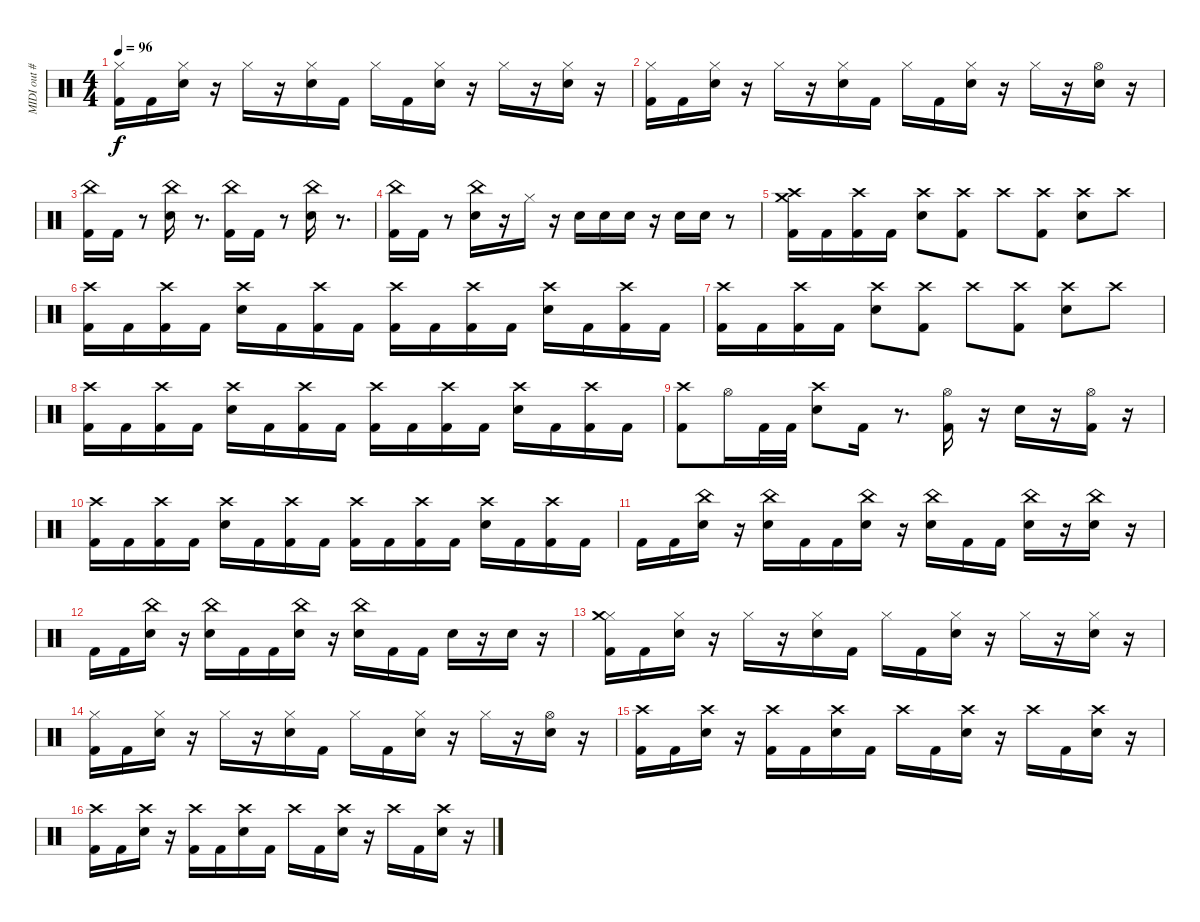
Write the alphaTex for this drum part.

\track ("MIDI out #3" "MIDI out #") {instrument percussion}
\staff {score}
\articulation defaults
\ts (4 4)
\tempo 96
\clef neutral
\ks c
("Hi-Hat (closed)" "Kick (hit) 2").16{dy f} "Kick (hit) 2".16 ("Snare (hit) 2" "Hi-Hat (closed)").16 r.16 "Hi-Hat (closed)".16 r.16 ("Snare (hit) 2" "Hi-Hat (closed)").16 "Kick (hit) 2".16 "Hi-Hat (closed)".16 "Kick (hit) 2".16 ("Snare (hit) 2" "Hi-Hat (closed)").16 r.16 "Hi-Hat (closed)".16 r.16 ("Snare (hit) 2" "Hi-Hat (closed)").16 r.16 |
("Hi-Hat (closed)" "Kick (hit) 2").16 "Kick (hit) 2".16 ("Hi-Hat (closed)" "Snare (hit) 2").16 r.16 "Hi-Hat (closed)".16 r.16 ("Hi-Hat (closed)" "Snare (hit) 2").16 "Kick (hit) 2".16 "Hi-Hat (closed)".16 "Kick (hit) 2".16 ("Hi-Hat (closed)" "Snare (hit) 2").16 r.16 "Hi-Hat (closed)".16 r.16 ("Hi-Hat (open)" "Snare (hit) 2").16 r.16 |
("China (hit)" "Kick (hit) 2").16 "Kick (hit) 2".16 r.8 ("China (hit)" "Snare (hit) 2").16 r.8{d} ("China (hit)" "Kick (hit) 2").16 "Kick (hit) 2".16 r.8 ("China (hit)" "Snare (hit) 2").16 r.8{d} |
("China (hit)" "Kick (hit) 2").16 "Kick (hit) 2".16 r.8 ("China (hit)" "Snare (hit) 2").16 r.16 "Hi-Hat (closed)".16 r.16 "Snare (hit) 2".16 "Snare (hit) 2".16 "Snare (hit) 2".16 r.16 "Snare (hit) 2".16 "Snare (hit) 2".16 r.8 |
("Crash high (hit)" "Kick (hit) 2" "Crash medium (hit)").16 "Kick (hit) 2".16 ("Crash high (hit)" "Kick (hit) 2").16 "Kick (hit) 2".16 ("Crash high (hit)" "Snare (hit) 2").8 ("Crash high (hit)" "Kick (hit) 2").8 "Crash high (hit)".8 ("Crash high (hit)" "Kick (hit) 2").8 ("Crash high (hit)" "Snare (hit) 2").8 "Crash high (hit)".8 |
("Crash high (hit)" "Kick (hit) 2").16 "Kick (hit) 2".16 ("Crash high (hit)" "Kick (hit) 2").16 "Kick (hit) 2".16 ("Crash high (hit)" "Snare (hit) 2").16 "Kick (hit) 2".16 ("Crash high (hit)" "Kick (hit) 2").16 "Kick (hit) 2".16 ("Crash high (hit)" "Kick (hit) 2").16 "Kick (hit) 2".16 ("Crash high (hit)" "Kick (hit) 2").16 "Kick (hit) 2".16 ("Crash high (hit)" "Snare (hit) 2").16 "Kick (hit) 2".16 ("Crash high (hit)" "Kick (hit) 2").16 "Kick (hit) 2".16 |
("Crash high (hit)" "Kick (hit) 2").16 "Kick (hit) 2".16 ("Crash high (hit)" "Kick (hit) 2").16 "Kick (hit) 2".16 ("Crash high (hit)" "Snare (hit) 2").8 ("Crash high (hit)" "Kick (hit) 2").8 "Crash high (hit)".8 ("Crash high (hit)" "Kick (hit) 2").8 ("Crash high (hit)" "Snare (hit) 2").8 "Crash high (hit)".8 |
("Kick (hit) 2" "Crash high (hit)").16 "Kick (hit) 2".16 ("Crash high (hit)" "Kick (hit) 2").16 "Kick (hit) 2".16 ("Snare (hit) 2" "Crash high (hit)").16 "Kick (hit) 2".16 ("Crash high (hit)" "Kick (hit) 2").16 "Kick (hit) 2".16 ("Kick (hit) 2" "Crash high (hit)").16 "Kick (hit) 2".16 ("Crash high (hit)" "Kick (hit) 2").16 "Kick (hit) 2".16 ("Snare (hit) 2" "Crash high (hit)").16 "Kick (hit) 2".16 ("Crash high (hit)" "Kick (hit) 2").16 "Kick (hit) 2".16 |
("Crash high (hit)" "Kick (hit) 2").8 "Hi-Hat (open)".16 "Kick (hit) 2".32 "Kick (hit) 2".32 ("Crash high (hit)" "Snare (hit) 2").8 "Kick (hit) 2".16 r.8{d} ("Hi-Hat (open)" "Kick (hit) 2").16 r.16 "Snare (hit) 2".16 r.16 ("Hi-Hat (open)" "Kick (hit) 2").16 r.16 |
("Crash high (hit)" "Kick (hit) 2").16 "Kick (hit) 2".16 ("Crash high (hit)" "Kick (hit) 2").16 "Kick (hit) 2".16 ("Crash high (hit)" "Snare (hit) 2").16 "Kick (hit) 2".16 ("Crash high (hit)" "Kick (hit) 2").16 "Kick (hit) 2".16 ("Crash high (hit)" "Kick (hit) 2").16 "Kick (hit) 2".16 ("Crash high (hit)" "Kick (hit) 2").16 "Kick (hit) 2".16 ("Crash high (hit)" "Snare (hit) 2").16 "Kick (hit) 2".16 ("Crash high (hit)" "Kick (hit) 2").16 "Kick (hit) 2".16 |
"Kick (hit) 2".16 "Kick (hit) 2".16 ("Snare (hit) 2" "China (hit)").16 r.16 ("Snare (hit) 2" "China (hit)").16 "Kick (hit) 2".16 "Kick (hit) 2".16 ("Snare (hit) 2" "China (hit)").16 r.16 ("Snare (hit) 2" "China (hit)").16 "Kick (hit) 2".16 "Kick (hit) 2".16 ("Snare (hit) 2" "China (hit)").16 r.16 ("Snare (hit) 2" "China (hit)").16 r.16 |
"Kick (hit) 2".16 "Kick (hit) 2".16 ("Snare (hit) 2" "China (hit)").16 r.16 ("Snare (hit) 2" "China (hit)").16 "Kick (hit) 2".16 "Kick (hit) 2".16 ("Snare (hit) 2" "China (hit)").16 r.16 ("Snare (hit) 2" "China (hit)").16 "Kick (hit) 2".16 "Kick (hit) 2".16 "Snare (hit) 2".16 r.16 "Snare (hit) 2".16 r.16 |
("Hi-Hat (closed)" "Kick (hit) 2" "Crash medium (hit)").16 "Kick (hit) 2".16 ("Snare (hit) 2" "Hi-Hat (closed)").16 r.16 "Hi-Hat (closed)".16 r.16 ("Snare (hit) 2" "Hi-Hat (closed)").16 "Kick (hit) 2".16 "Hi-Hat (closed)".16 "Kick (hit) 2".16 ("Snare (hit) 2" "Hi-Hat (closed)").16 r.16 "Hi-Hat (closed)".16 r.16 ("Snare (hit) 2" "Hi-Hat (closed)").16 r.16 |
("Hi-Hat (closed)" "Kick (hit) 2").16 "Kick (hit) 2".16 ("Hi-Hat (closed)" "Snare (hit) 2").16 r.16 "Hi-Hat (closed)".16 r.16 ("Hi-Hat (closed)" "Snare (hit) 2").16 "Kick (hit) 2".16 "Hi-Hat (closed)".16 "Kick (hit) 2".16 ("Hi-Hat (closed)" "Snare (hit) 2").16 r.16 "Hi-Hat (closed)".16 r.16 ("Hi-Hat (open)" "Snare (hit) 2").16 r.16 |
("Crash high (hit)" "Kick (hit) 2").16 "Kick (hit) 2".16 ("Crash high (hit)" "Snare (hit) 2").16 r.16 ("Crash high (hit)" "Kick (hit) 2").16 "Kick (hit) 2".16 ("Crash high (hit)" "Snare (hit) 2").16 "Kick (hit) 2".16 "Crash high (hit)".16 "Kick (hit) 2".16 ("Crash high (hit)" "Snare (hit) 2").16 r.16 "Crash high (hit)".16 "Kick (hit) 2".16 ("Crash high (hit)" "Snare (hit) 2").16 r.16 |
("Crash high (hit)" "Kick (hit) 2").16 "Kick (hit) 2".16 ("Crash high (hit)" "Snare (hit) 2").16 r.16 ("Crash high (hit)" "Kick (hit) 2").16 "Kick (hit) 2".16 ("Crash high (hit)" "Snare (hit) 2").16 "Kick (hit) 2".16 "Crash high (hit)".16 "Kick (hit) 2".16 ("Crash high (hit)" "Snare (hit) 2").16 r.16 "Crash high (hit)".16 "Kick (hit) 2".16 ("Crash high (hit)" "Snare (hit) 2").16 r.16
